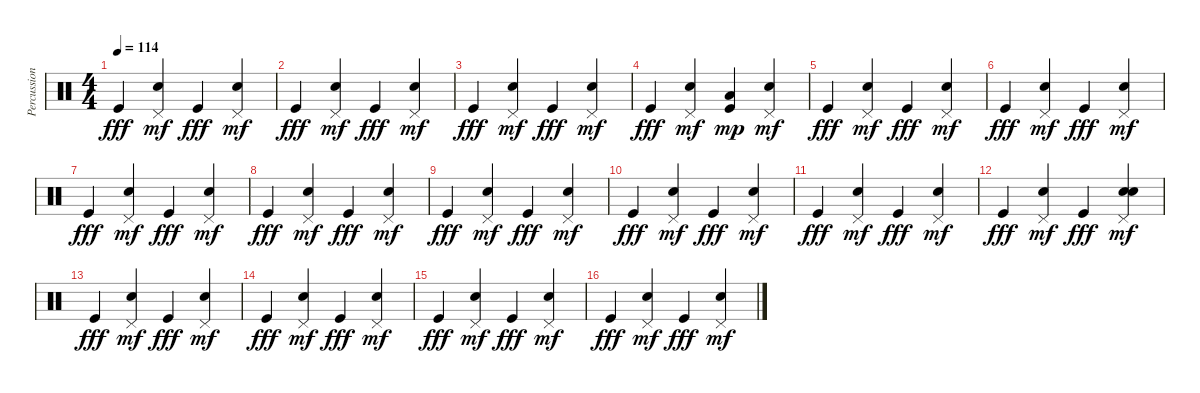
\track ("Percussion" "Percussion") {instrument percussion}
\staff {score}
\articulation defaults
\ts (4 4)
\tempo 114
\clef neutral
\ks c "Kick (hit)".4{dy fff}
("Pedal Hi-Hat (hit)" "Electric Snare (hit)").4{dy mf} "Kick (hit)".4{dy fff} ("Pedal Hi-Hat (hit)" "Electric Snare (hit)").4{dy mf} |
"Kick (hit)".4{dy fff} ("Pedal Hi-Hat (hit)" "Electric Snare (hit)").4{dy mf} "Kick (hit)".4{dy fff} ("Pedal Hi-Hat (hit)" "Electric Snare (hit)").4{dy mf} |
"Kick (hit)".4{dy fff} ("Pedal Hi-Hat (hit)" "Electric Snare (hit)").4{dy mf} "Kick (hit)".4{dy fff} ("Pedal Hi-Hat (hit)" "Electric Snare (hit)").4{dy mf} |
"Kick (hit)".4{dy fff} ("Pedal Hi-Hat (hit)" "Electric Snare (hit)").4{dy mf} ("Kick (hit)" "Low Tom (hit)").4{dy mp} ("Pedal Hi-Hat (hit)" "Electric Snare (hit)").4{dy mf} |
"Kick (hit)".4{dy fff} ("Pedal Hi-Hat (hit)" "Electric Snare (hit)").4{dy mf} "Kick (hit)".4{dy fff} ("Pedal Hi-Hat (hit)" "Electric Snare (hit)").4{dy mf} |
"Kick (hit)".4{dy fff} ("Pedal Hi-Hat (hit)" "Electric Snare (hit)").4{dy mf} "Kick (hit)".4{dy fff} ("Pedal Hi-Hat (hit)" "Electric Snare (hit)").4{dy mf} |
"Kick (hit)".4{dy fff} ("Pedal Hi-Hat (hit)" "Electric Snare (hit)").4{dy mf} "Kick (hit)".4{dy fff} ("Pedal Hi-Hat (hit)" "Electric Snare (hit)").4{dy mf} |
"Kick (hit)".4{dy fff} ("Pedal Hi-Hat (hit)" "Electric Snare (hit)").4{dy mf} "Kick (hit)".4{dy fff} ("Pedal Hi-Hat (hit)" "Electric Snare (hit)").4{dy mf} |
"Kick (hit)".4{dy fff} ("Pedal Hi-Hat (hit)" "Electric Snare (hit)").4{dy mf} "Kick (hit)".4{dy fff} ("Pedal Hi-Hat (hit)" "Electric Snare (hit)").4{dy mf} |
"Kick (hit)".4{dy fff} ("Pedal Hi-Hat (hit)" "Electric Snare (hit)").4{dy mf} "Kick (hit)".4{dy fff} ("Pedal Hi-Hat (hit)" "Electric Snare (hit)").4{dy mf} |
"Kick (hit)".4{dy fff} ("Pedal Hi-Hat (hit)" "Electric Snare (hit)").4{dy mf} "Kick (hit)".4{dy fff} ("Pedal Hi-Hat (hit)" "Electric Snare (hit)").4{dy mf} |
"Kick (hit)".4{dy fff} ("Pedal Hi-Hat (hit)" "Electric Snare (hit)").4{dy mf} "Kick (hit)".4{dy fff} ("Pedal Hi-Hat (hit)" "Electric Snare (hit)" "Snare (hit)").4{dy mf} |
"Kick (hit)".4{dy fff} ("Pedal Hi-Hat (hit)" "Electric Snare (hit)").4{dy mf} "Kick (hit)".4{dy fff} ("Pedal Hi-Hat (hit)" "Electric Snare (hit)").4{dy mf} |
"Kick (hit)".4{dy fff} ("Pedal Hi-Hat (hit)" "Electric Snare (hit)").4{dy mf} "Kick (hit)".4{dy fff} ("Pedal Hi-Hat (hit)" "Electric Snare (hit)").4{dy mf} |
"Kick (hit)".4{dy fff} ("Pedal Hi-Hat (hit)" "Electric Snare (hit)").4{dy mf} "Kick (hit)".4{dy fff} ("Pedal Hi-Hat (hit)" "Electric Snare (hit)").4{dy mf} |
"Kick (hit)".4{dy fff} ("Pedal Hi-Hat (hit)" "Electric Snare (hit)").4{dy mf} "Kick (hit)".4{dy fff} ("Pedal Hi-Hat (hit)" "Electric Snare (hit)").4{dy mf}
